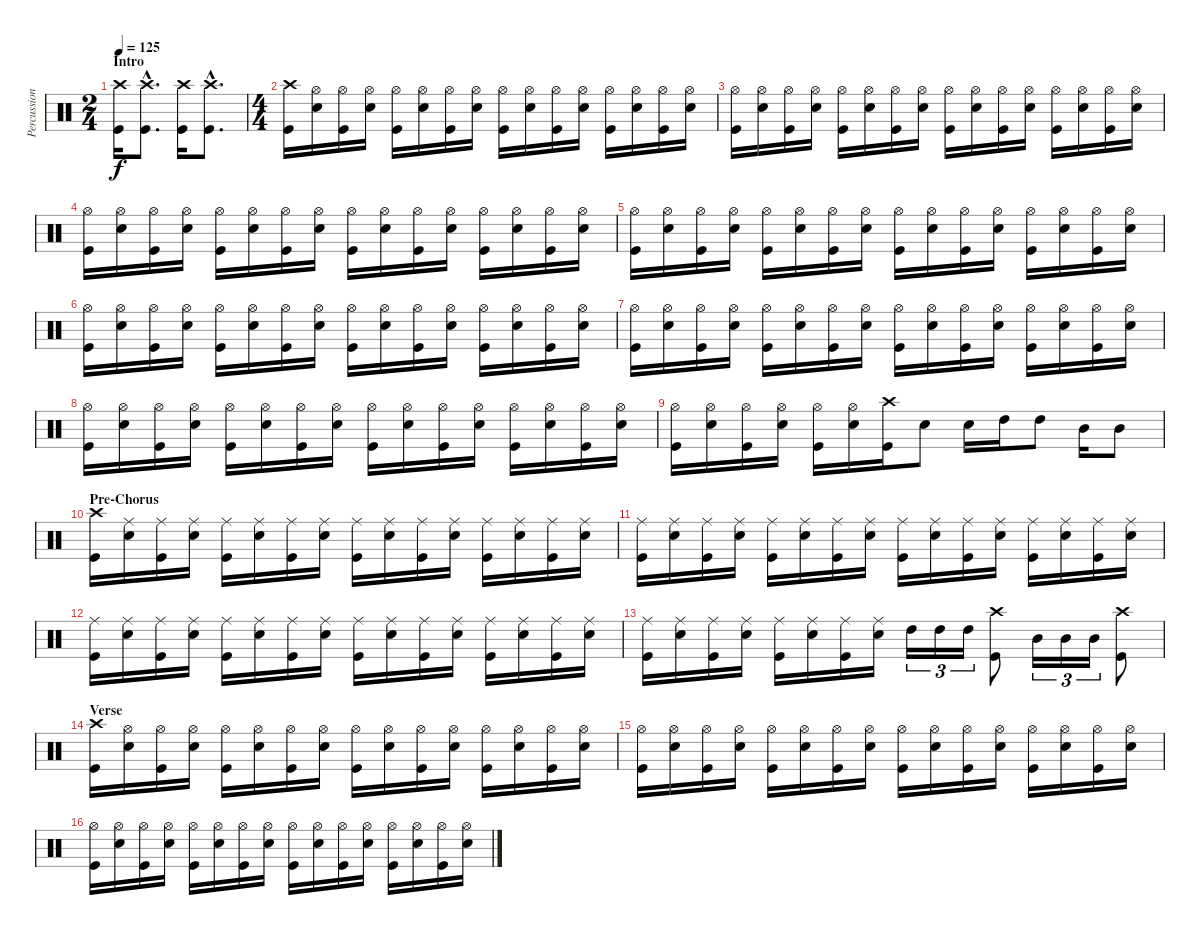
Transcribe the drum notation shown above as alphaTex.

\track ("Percussion" "Percussion") {instrument percussion}
\staff {score}
\articulation defaults
\ts (2 4)
\section ("" "Intro")
\tempo 125
\clef neutral
\ks c
("Crash high (hit)" "Kick (hit)").16{dy f} ("Crash high (hit)"{hac} "Kick (hit)"{hac}).8{d} ("Crash high (hit)" "Kick (hit)").16 ("Crash high (hit)"{hac} "Kick (hit)"{hac}).8{d} |
\ts (4 4)
("Crash high (hit)" "Kick (hit)").16 ("Hi-Hat (open)" "Electric Snare (hit)").16 ("Hi-Hat (open)" "Kick (hit)").16 ("Hi-Hat (open)" "Electric Snare (hit)").16 ("Hi-Hat (open)" "Kick (hit)").16 ("Hi-Hat (open)" "Electric Snare (hit)").16 ("Hi-Hat (open)" "Kick (hit)").16 ("Hi-Hat (open)" "Electric Snare (hit)").16 ("Hi-Hat (open)" "Kick (hit)").16 ("Hi-Hat (open)" "Electric Snare (hit)").16 ("Hi-Hat (open)" "Kick (hit)").16 ("Hi-Hat (open)" "Electric Snare (hit)").16 ("Hi-Hat (open)" "Kick (hit)").16 ("Hi-Hat (open)" "Electric Snare (hit)").16 ("Hi-Hat (open)" "Kick (hit)").16 ("Hi-Hat (open)" "Electric Snare (hit)").16 |
("Hi-Hat (open)" "Kick (hit)").16 ("Hi-Hat (open)" "Electric Snare (hit)").16 ("Hi-Hat (open)" "Kick (hit)").16 ("Hi-Hat (open)" "Electric Snare (hit)").16 ("Hi-Hat (open)" "Kick (hit)").16 ("Hi-Hat (open)" "Electric Snare (hit)").16 ("Hi-Hat (open)" "Kick (hit)").16 ("Hi-Hat (open)" "Electric Snare (hit)").16 ("Hi-Hat (open)" "Kick (hit)").16 ("Hi-Hat (open)" "Electric Snare (hit)").16 ("Hi-Hat (open)" "Kick (hit)").16 ("Hi-Hat (open)" "Electric Snare (hit)").16 ("Hi-Hat (open)" "Kick (hit)").16 ("Hi-Hat (open)" "Electric Snare (hit)").16 ("Hi-Hat (open)" "Kick (hit)").16 ("Hi-Hat (open)" "Electric Snare (hit)").16 |
("Hi-Hat (open)" "Kick (hit)").16 ("Hi-Hat (open)" "Electric Snare (hit)").16 ("Hi-Hat (open)" "Kick (hit)").16 ("Hi-Hat (open)" "Electric Snare (hit)").16 ("Hi-Hat (open)" "Kick (hit)").16 ("Hi-Hat (open)" "Electric Snare (hit)").16 ("Hi-Hat (open)" "Kick (hit)").16 ("Hi-Hat (open)" "Electric Snare (hit)").16 ("Hi-Hat (open)" "Kick (hit)").16 ("Hi-Hat (open)" "Electric Snare (hit)").16 ("Hi-Hat (open)" "Kick (hit)").16 ("Hi-Hat (open)" "Electric Snare (hit)").16 ("Hi-Hat (open)" "Kick (hit)").16 ("Hi-Hat (open)" "Electric Snare (hit)").16 ("Hi-Hat (open)" "Kick (hit)").16 ("Hi-Hat (open)" "Electric Snare (hit)").16 |
("Hi-Hat (open)" "Kick (hit)").16 ("Hi-Hat (open)" "Electric Snare (hit)").16 ("Hi-Hat (open)" "Kick (hit)").16 ("Hi-Hat (open)" "Electric Snare (hit)").16 ("Hi-Hat (open)" "Kick (hit)").16 ("Hi-Hat (open)" "Electric Snare (hit)").16 ("Hi-Hat (open)" "Kick (hit)").16 ("Hi-Hat (open)" "Electric Snare (hit)").16 ("Hi-Hat (open)" "Kick (hit)").16 ("Hi-Hat (open)" "Electric Snare (hit)").16 ("Hi-Hat (open)" "Kick (hit)").16 ("Hi-Hat (open)" "Electric Snare (hit)").16 ("Hi-Hat (open)" "Kick (hit)").16 ("Hi-Hat (open)" "Electric Snare (hit)").16 ("Hi-Hat (open)" "Kick (hit)").16 ("Hi-Hat (open)" "Electric Snare (hit)").16 |
("Hi-Hat (open)" "Kick (hit)").16 ("Hi-Hat (open)" "Electric Snare (hit)").16 ("Hi-Hat (open)" "Kick (hit)").16 ("Hi-Hat (open)" "Electric Snare (hit)").16 ("Hi-Hat (open)" "Kick (hit)").16 ("Hi-Hat (open)" "Electric Snare (hit)").16 ("Hi-Hat (open)" "Kick (hit)").16 ("Hi-Hat (open)" "Electric Snare (hit)").16 ("Hi-Hat (open)" "Kick (hit)").16 ("Hi-Hat (open)" "Electric Snare (hit)").16 ("Hi-Hat (open)" "Kick (hit)").16 ("Hi-Hat (open)" "Electric Snare (hit)").16 ("Hi-Hat (open)" "Kick (hit)").16 ("Hi-Hat (open)" "Electric Snare (hit)").16 ("Hi-Hat (open)" "Kick (hit)").16 ("Hi-Hat (open)" "Electric Snare (hit)").16 |
("Hi-Hat (open)" "Kick (hit)").16 ("Hi-Hat (open)" "Electric Snare (hit)").16 ("Hi-Hat (open)" "Kick (hit)").16 ("Hi-Hat (open)" "Electric Snare (hit)").16 ("Hi-Hat (open)" "Kick (hit)").16 ("Hi-Hat (open)" "Electric Snare (hit)").16 ("Hi-Hat (open)" "Kick (hit)").16 ("Hi-Hat (open)" "Electric Snare (hit)").16 ("Hi-Hat (open)" "Kick (hit)").16 ("Hi-Hat (open)" "Electric Snare (hit)").16 ("Hi-Hat (open)" "Kick (hit)").16 ("Hi-Hat (open)" "Electric Snare (hit)").16 ("Hi-Hat (open)" "Kick (hit)").16 ("Hi-Hat (open)" "Electric Snare (hit)").16 ("Hi-Hat (open)" "Kick (hit)").16 ("Hi-Hat (open)" "Electric Snare (hit)").16 |
("Hi-Hat (open)" "Kick (hit)").16 ("Hi-Hat (open)" "Electric Snare (hit)").16 ("Hi-Hat (open)" "Kick (hit)").16 ("Hi-Hat (open)" "Electric Snare (hit)").16 ("Hi-Hat (open)" "Kick (hit)").16 ("Hi-Hat (open)" "Electric Snare (hit)").16 ("Hi-Hat (open)" "Kick (hit)").16 ("Hi-Hat (open)" "Electric Snare (hit)").16 ("Hi-Hat (open)" "Kick (hit)").16 ("Hi-Hat (open)" "Electric Snare (hit)").16 ("Hi-Hat (open)" "Kick (hit)").16 ("Hi-Hat (open)" "Electric Snare (hit)").16 ("Hi-Hat (open)" "Kick (hit)").16 ("Hi-Hat (open)" "Electric Snare (hit)").16 ("Hi-Hat (open)" "Kick (hit)").16 ("Hi-Hat (open)" "Electric Snare (hit)").16 |
("Hi-Hat (open)" "Kick (hit)").16 ("Hi-Hat (open)" "Electric Snare (hit)").16 ("Hi-Hat (open)" "Kick (hit)").16 ("Hi-Hat (open)" "Electric Snare (hit)").16 ("Hi-Hat (open)" "Kick (hit)").16 ("Hi-Hat (open)" "Electric Snare (hit)").16 ("Crash high (hit)" "Kick (hit)").16 "Electric Snare (hit)".8 "Electric Snare (hit)".16 "High Tom (hit)".16 "High Tom (hit)".8 "Mid Tom (hit)".16 "Mid Tom (hit)".8 |
\section ("" "Pre-Chorus")
("Crash high (hit)" "Kick (hit)").16 ("Ride (middle)" "Electric Snare (hit)").16 ("Ride (middle)" "Kick (hit)").16 ("Ride (middle)" "Electric Snare (hit)").16 ("Ride (middle)" "Kick (hit)").16 ("Ride (middle)" "Electric Snare (hit)").16 ("Ride (middle)" "Kick (hit)").16 ("Ride (middle)" "Electric Snare (hit)").16 ("Ride (middle)" "Kick (hit)").16 ("Ride (middle)" "Electric Snare (hit)").16 ("Ride (middle)" "Kick (hit)").16 ("Ride (middle)" "Electric Snare (hit)").16 ("Ride (middle)" "Kick (hit)").16 ("Ride (middle)" "Electric Snare (hit)").16 ("Ride (middle)" "Kick (hit)").16 ("Ride (middle)" "Electric Snare (hit)").16 |
("Ride (middle)" "Kick (hit)").16 ("Ride (middle)" "Electric Snare (hit)").16 ("Ride (middle)" "Kick (hit)").16 ("Ride (middle)" "Electric Snare (hit)").16 ("Ride (middle)" "Kick (hit)").16 ("Ride (middle)" "Electric Snare (hit)").16 ("Ride (middle)" "Kick (hit)").16 ("Ride (middle)" "Electric Snare (hit)").16 ("Ride (middle)" "Kick (hit)").16 ("Ride (middle)" "Electric Snare (hit)").16 ("Ride (middle)" "Kick (hit)").16 ("Ride (middle)" "Electric Snare (hit)").16 ("Ride (middle)" "Kick (hit)").16 ("Ride (middle)" "Electric Snare (hit)").16 ("Ride (middle)" "Kick (hit)").16 ("Ride (middle)" "Electric Snare (hit)").16 |
("Ride (middle)" "Kick (hit)").16 ("Ride (middle)" "Electric Snare (hit)").16 ("Ride (middle)" "Kick (hit)").16 ("Ride (middle)" "Electric Snare (hit)").16 ("Ride (middle)" "Kick (hit)").16 ("Ride (middle)" "Electric Snare (hit)").16 ("Ride (middle)" "Kick (hit)").16 ("Ride (middle)" "Electric Snare (hit)").16 ("Ride (middle)" "Kick (hit)").16 ("Ride (middle)" "Electric Snare (hit)").16 ("Ride (middle)" "Kick (hit)").16 ("Ride (middle)" "Electric Snare (hit)").16 ("Ride (middle)" "Kick (hit)").16 ("Ride (middle)" "Electric Snare (hit)").16 ("Ride (middle)" "Kick (hit)").16 ("Ride (middle)" "Electric Snare (hit)").16 |
("Ride (middle)" "Kick (hit)").16 ("Ride (middle)" "Electric Snare (hit)").16 ("Ride (middle)" "Kick (hit)").16 ("Ride (middle)" "Electric Snare (hit)").16 ("Ride (middle)" "Kick (hit)").16 ("Ride (middle)" "Electric Snare (hit)").16 ("Ride (middle)" "Kick (hit)").16 ("Ride (middle)" "Electric Snare (hit)").16 "High Tom (hit)".16{tu (3 2)} "High Tom (hit)".16{tu (3 2)} "High Tom (hit)".16{tu (3 2)} ("Crash high (hit)" "Kick (hit)").8 "Mid Tom (hit)".16{tu (3 2)} "Mid Tom (hit)".16{tu (3 2)} "Mid Tom (hit)".16{tu (3 2)} ("Crash high (hit)" "Kick (hit)").8 |
\section ("" "Verse")
("Crash high (hit)" "Kick (hit)").16 ("Hi-Hat (open)" "Electric Snare (hit)").16 ("Hi-Hat (open)" "Kick (hit)").16 ("Hi-Hat (open)" "Electric Snare (hit)").16 ("Hi-Hat (open)" "Kick (hit)").16 ("Hi-Hat (open)" "Electric Snare (hit)").16 ("Hi-Hat (open)" "Kick (hit)").16 ("Hi-Hat (open)" "Electric Snare (hit)").16 ("Hi-Hat (open)" "Kick (hit)").16 ("Hi-Hat (open)" "Electric Snare (hit)").16 ("Hi-Hat (open)" "Kick (hit)").16 ("Hi-Hat (open)" "Electric Snare (hit)").16 ("Hi-Hat (open)" "Kick (hit)").16 ("Hi-Hat (open)" "Electric Snare (hit)").16 ("Hi-Hat (open)" "Kick (hit)").16 ("Hi-Hat (open)" "Electric Snare (hit)").16 |
("Hi-Hat (open)" "Kick (hit)").16 ("Hi-Hat (open)" "Electric Snare (hit)").16 ("Hi-Hat (open)" "Kick (hit)").16 ("Hi-Hat (open)" "Electric Snare (hit)").16 ("Hi-Hat (open)" "Kick (hit)").16 ("Hi-Hat (open)" "Electric Snare (hit)").16 ("Hi-Hat (open)" "Kick (hit)").16 ("Hi-Hat (open)" "Electric Snare (hit)").16 ("Hi-Hat (open)" "Kick (hit)").16 ("Hi-Hat (open)" "Electric Snare (hit)").16 ("Hi-Hat (open)" "Kick (hit)").16 ("Hi-Hat (open)" "Electric Snare (hit)").16 ("Hi-Hat (open)" "Kick (hit)").16 ("Hi-Hat (open)" "Electric Snare (hit)").16 ("Hi-Hat (open)" "Kick (hit)").16 ("Hi-Hat (open)" "Electric Snare (hit)").16 |
("Hi-Hat (open)" "Kick (hit)").16 ("Hi-Hat (open)" "Electric Snare (hit)").16 ("Hi-Hat (open)" "Kick (hit)").16 ("Hi-Hat (open)" "Electric Snare (hit)").16 ("Hi-Hat (open)" "Kick (hit)").16 ("Hi-Hat (open)" "Electric Snare (hit)").16 ("Hi-Hat (open)" "Kick (hit)").16 ("Hi-Hat (open)" "Electric Snare (hit)").16 ("Hi-Hat (open)" "Kick (hit)").16 ("Hi-Hat (open)" "Electric Snare (hit)").16 ("Hi-Hat (open)" "Kick (hit)").16 ("Hi-Hat (open)" "Electric Snare (hit)").16 ("Hi-Hat (open)" "Kick (hit)").16 ("Hi-Hat (open)" "Electric Snare (hit)").16 ("Hi-Hat (open)" "Kick (hit)").16 ("Hi-Hat (open)" "Electric Snare (hit)").16
